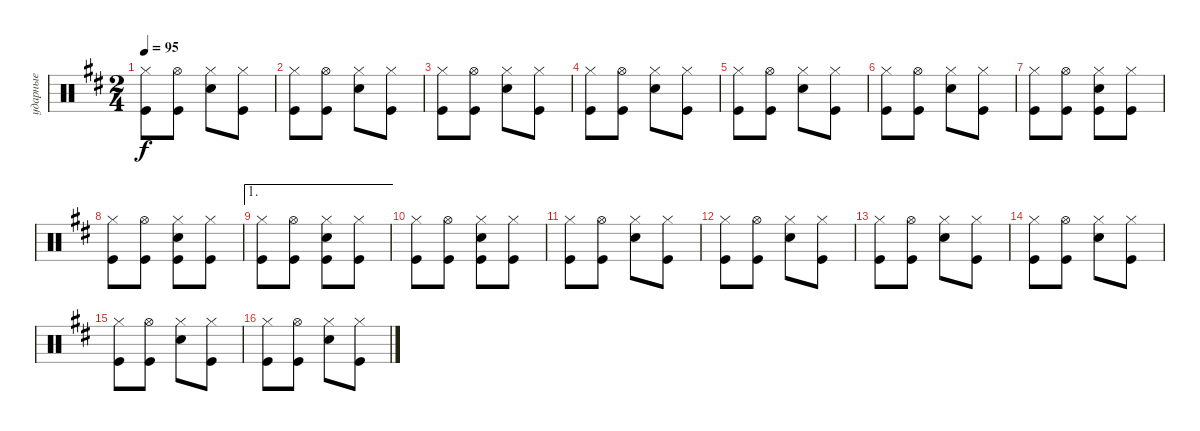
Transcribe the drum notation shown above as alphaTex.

\track ("ударные" "ударные") {instrument percussion}
\staff {score}
\articulation defaults
\ts (2 4)
\tempo 95
\clef neutral
\ks bminor
("Kick (hit)" "Hi-Hat (closed)").8{dy f} ("Kick (hit)" "Hi-Hat (open)").8 ("Snare (hit) 2" "Hi-Hat (closed)").8 ("Hi-Hat (closed)" "Kick (hit)").8 |
("Kick (hit)" "Hi-Hat (closed)").8 ("Kick (hit)" "Hi-Hat (open)").8 ("Snare (hit) 2" "Hi-Hat (closed)").8 ("Hi-Hat (closed)" "Kick (hit)").8 |
("Kick (hit)" "Hi-Hat (closed)").8 ("Kick (hit)" "Hi-Hat (open)").8 ("Snare (hit) 2" "Hi-Hat (closed)").8 ("Hi-Hat (closed)" "Kick (hit)").8 |
("Kick (hit)" "Hi-Hat (closed)").8 ("Kick (hit)" "Hi-Hat (open)").8 ("Snare (hit) 2" "Hi-Hat (closed)").8 ("Hi-Hat (closed)" "Kick (hit)").8 |
("Kick (hit)" "Hi-Hat (closed)").8 ("Kick (hit)" "Hi-Hat (open)").8 ("Snare (hit) 2" "Hi-Hat (closed)").8 ("Hi-Hat (closed)" "Kick (hit)").8 |
("Kick (hit)" "Hi-Hat (closed)").8 ("Kick (hit)" "Hi-Hat (open)").8 ("Snare (hit) 2" "Hi-Hat (closed)").8 ("Hi-Hat (closed)" "Kick (hit)").8 |
("Kick (hit)" "Hi-Hat (closed)").8 ("Kick (hit)" "Hi-Hat (open)").8 ("Snare (hit) 2" "Hi-Hat (closed)" "Kick (hit)").8 ("Hi-Hat (closed)" "Kick (hit)").8 |
("Kick (hit)" "Hi-Hat (closed)").8 ("Kick (hit)" "Hi-Hat (open)").8 ("Snare (hit) 2" "Hi-Hat (closed)" "Kick (hit)").8 ("Hi-Hat (closed)" "Kick (hit)").8 |
\ae 1
("Kick (hit)" "Hi-Hat (closed)").8 ("Kick (hit)" "Hi-Hat (open)").8 ("Snare (hit) 2" "Hi-Hat (closed)" "Kick (hit)").8 ("Hi-Hat (closed)" "Kick (hit)").8 |
("Kick (hit)" "Hi-Hat (closed)").8 ("Kick (hit)" "Hi-Hat (open)").8 ("Snare (hit) 2" "Hi-Hat (closed)" "Kick (hit)").8 ("Hi-Hat (closed)" "Kick (hit)").8 |
("Kick (hit)" "Hi-Hat (closed)").8 ("Kick (hit)" "Hi-Hat (open)").8 ("Snare (hit) 2" "Hi-Hat (closed)").8 ("Hi-Hat (closed)" "Kick (hit)").8 |
("Kick (hit)" "Hi-Hat (closed)").8 ("Kick (hit)" "Hi-Hat (open)").8 ("Snare (hit) 2" "Hi-Hat (closed)").8 ("Hi-Hat (closed)" "Kick (hit)").8 |
("Kick (hit)" "Hi-Hat (closed)").8 ("Kick (hit)" "Hi-Hat (open)").8 ("Snare (hit) 2" "Hi-Hat (closed)").8 ("Hi-Hat (closed)" "Kick (hit)").8 |
("Kick (hit)" "Hi-Hat (closed)").8 ("Kick (hit)" "Hi-Hat (open)").8 ("Snare (hit) 2" "Hi-Hat (closed)").8 ("Hi-Hat (closed)" "Kick (hit)").8 |
("Kick (hit)" "Hi-Hat (closed)").8 ("Kick (hit)" "Hi-Hat (open)").8 ("Snare (hit) 2" "Hi-Hat (closed)").8 ("Hi-Hat (closed)" "Kick (hit)").8 |
("Kick (hit)" "Hi-Hat (closed)").8 ("Kick (hit)" "Hi-Hat (open)").8 ("Snare (hit) 2" "Hi-Hat (closed)").8 ("Hi-Hat (closed)" "Kick (hit)").8
